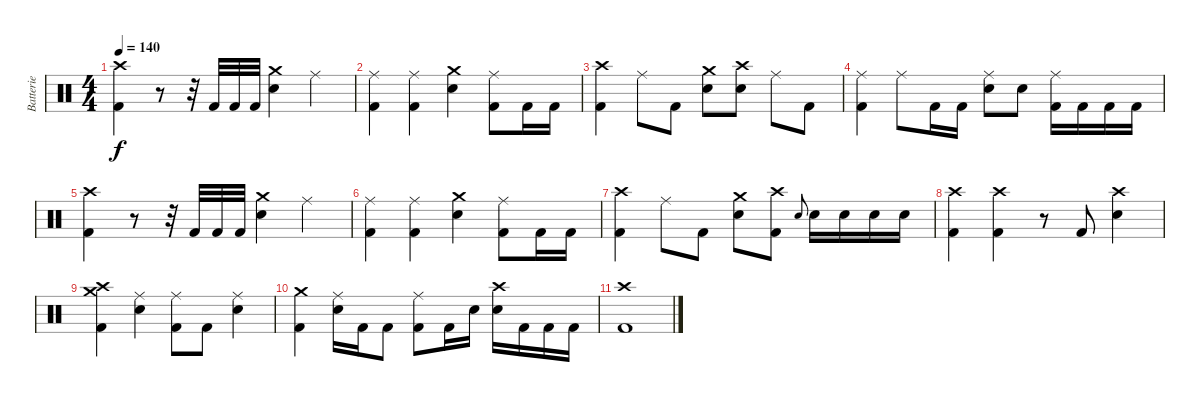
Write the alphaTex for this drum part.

\track ("Batterie" "Batterie") {instrument percussion}
\staff {score}
\articulation defaults
\ts (4 4)
\tempo 140
\clef neutral
\ks c
("Crash high (hit)" "Kick (hit) 2").4{dy f} r.8 r.32 "Kick (hit) 2".32 "Kick (hit) 2".32 "Kick (hit) 2".32 ("Crash medium (hit)" "Electric Snare (hit)").4 "Ride (middle)".4 |
("Ride (middle)" "Kick (hit) 2").4 ("Ride (middle)" "Kick (hit) 2").4 ("Crash medium (hit)" "Electric Snare (hit)").4 ("Ride (middle)" "Kick (hit) 2").8 "Kick (hit) 2".16 "Kick (hit) 2".16 |
("Crash high (hit)" "Kick (hit) 2").4 "Ride (middle)".8 "Kick (hit) 2".8 ("Crash medium (hit)" "Electric Snare (hit)").8 ("Crash high (hit)" "Electric Snare (hit)").8 "Ride (middle)".8 "Kick (hit) 2".8 |
("Ride (middle)" "Kick (hit) 2").4 "Ride (middle)".8 "Kick (hit) 2".16 "Kick (hit) 2".16 ("Ride (middle)" "Electric Snare (hit)").8 "Electric Snare (hit)".8 ("Ride (middle)" "Kick (hit) 2").16 "Kick (hit) 2".16 "Kick (hit) 2".16 "Kick (hit) 2".16 |
("Crash high (hit)" "Kick (hit) 2").4 r.8 r.32 "Kick (hit) 2".32 "Kick (hit) 2".32 "Kick (hit) 2".32 ("Crash medium (hit)" "Electric Snare (hit)").4 "Ride (middle)".4 |
("Ride (middle)" "Kick (hit) 2").4 ("Ride (middle)" "Kick (hit) 2").4 ("Crash medium (hit)" "Electric Snare (hit)").4 ("Ride (middle)" "Kick (hit) 2").8 "Kick (hit) 2".16 "Kick (hit) 2".16 |
("Crash high (hit)" "Kick (hit) 2").4 "Ride (middle)".8 "Kick (hit) 2".8 ("Crash medium (hit)" "Electric Snare (hit)").8 ("Crash high (hit)" "Kick (hit) 2").8 "Electric Snare (hit)".8{gr onbeat} "Electric Snare (hit)".16 "Electric Snare (hit)".16 "Electric Snare (hit)".16 "Electric Snare (hit)".16 |
("Crash high (hit)" "Kick (hit) 2").4 ("Crash high (hit)" "Kick (hit) 2").4 r.8 "Kick (hit) 2".8 ("Crash high (hit)" "Electric Snare (hit)").4 |
("Crash high (hit)" "Crash medium (hit)" "Kick (hit) 2").4 ("Ride (middle)" "Electric Snare (hit)").4 ("Ride (middle)" "Kick (hit) 2").8 "Kick (hit) 2".8 ("Ride (middle)" "Electric Snare (hit)").4 |
("Crash medium (hit)" "Kick (hit) 2").4 ("Ride (middle)" "Electric Snare (hit)").16 "Kick (hit) 2".16 "Kick (hit) 2".8 ("Ride (middle)" "Kick (hit) 2").8 "Kick (hit) 2".16 "Electric Snare (hit)".16 ("Crash high (hit)" "Electric Snare (hit)").16 "Kick (hit) 2".16 "Kick (hit) 2".16 "Kick (hit) 2".16 |
("Crash high (hit)" "Kick (hit) 2").1
